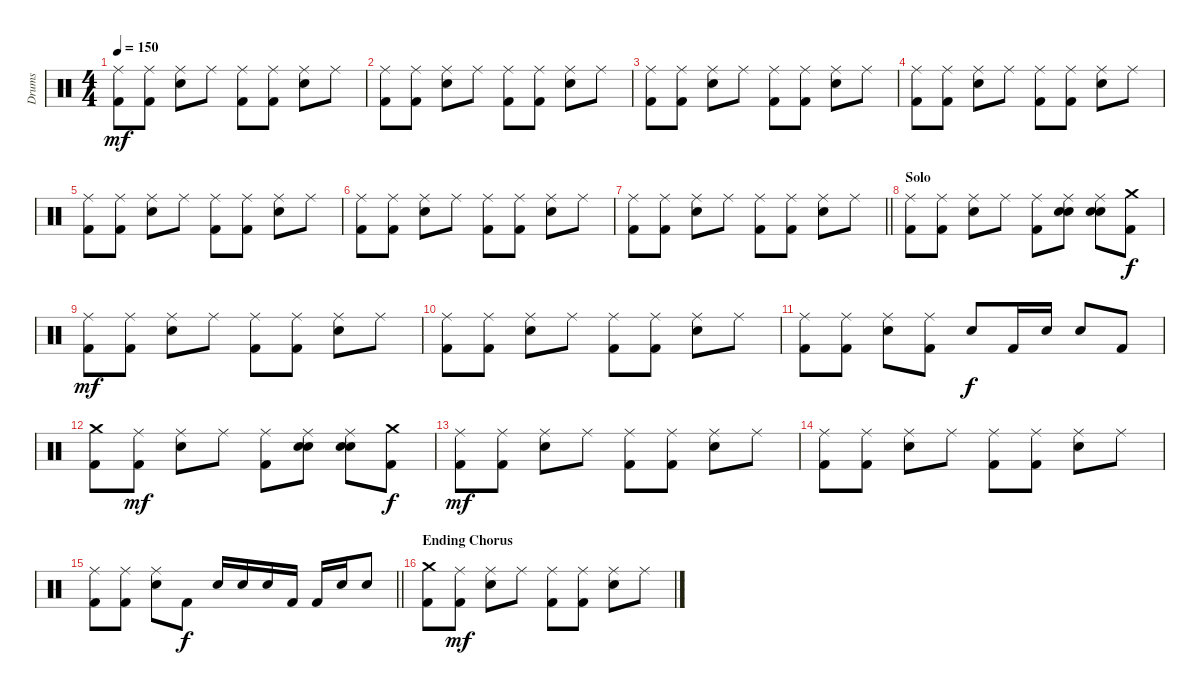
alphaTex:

\track ("Drums" "Drums") {instrument percussion}
\staff {score}
\articulation defaults
\ts (4 4)
\tempo 150
\clef neutral
\ks c
("Ride (middle)" "Kick (hit) 2").8{dy mf} ("Ride (middle)" "Kick (hit) 2").8 ("Ride (middle)" "Electric Snare (hit)").8 "Ride (middle)".8 ("Ride (middle)" "Kick (hit) 2").8 ("Ride (middle)" "Kick (hit) 2").8 ("Ride (middle)" "Electric Snare (hit)").8 "Ride (middle)".8 |
("Ride (middle)" "Kick (hit) 2").8 ("Ride (middle)" "Kick (hit) 2").8 ("Ride (middle)" "Electric Snare (hit)").8 "Ride (middle)".8 ("Ride (middle)" "Kick (hit) 2").8 ("Ride (middle)" "Kick (hit) 2").8 ("Ride (middle)" "Electric Snare (hit)").8 "Ride (middle)".8 |
("Ride (middle)" "Kick (hit) 2").8 ("Ride (middle)" "Kick (hit) 2").8 ("Ride (middle)" "Electric Snare (hit)").8 "Ride (middle)".8 ("Ride (middle)" "Kick (hit) 2").8 ("Ride (middle)" "Kick (hit) 2").8 ("Ride (middle)" "Electric Snare (hit)").8 "Ride (middle)".8 |
("Ride (middle)" "Kick (hit) 2").8 ("Ride (middle)" "Kick (hit) 2").8 ("Ride (middle)" "Electric Snare (hit)").8 "Ride (middle)".8 ("Ride (middle)" "Kick (hit) 2").8 ("Ride (middle)" "Kick (hit) 2").8 ("Ride (middle)" "Electric Snare (hit)").8 "Ride (middle)".8 |
("Ride (middle)" "Kick (hit) 2").8 ("Ride (middle)" "Kick (hit) 2").8 ("Ride (middle)" "Electric Snare (hit)").8 "Ride (middle)".8 ("Ride (middle)" "Kick (hit) 2").8 ("Ride (middle)" "Kick (hit) 2").8 ("Ride (middle)" "Electric Snare (hit)").8 "Ride (middle)".8 |
("Ride (middle)" "Kick (hit) 2").8 ("Ride (middle)" "Kick (hit) 2").8 ("Ride (middle)" "Electric Snare (hit)").8 "Ride (middle)".8 ("Ride (middle)" "Kick (hit) 2").8 ("Ride (middle)" "Kick (hit) 2").8 ("Ride (middle)" "Electric Snare (hit)").8 "Ride (middle)".8 |
\barLineRight lightlight
("Ride (middle)" "Kick (hit) 2").8 ("Ride (middle)" "Kick (hit) 2").8 ("Ride (middle)" "Electric Snare (hit)").8 "Ride (middle)".8 ("Ride (middle)" "Kick (hit) 2").8 ("Ride (middle)" "Kick (hit) 2").8 ("Ride (middle)" "Electric Snare (hit)").8 "Ride (middle)".8 |
\section ("" "Solo")
("Ride (middle)" "Kick (hit) 2").8 ("Ride (middle)" "Kick (hit) 2").8 ("Ride (middle)" "Electric Snare (hit)").8 "Ride (middle)".8 ("Ride (middle)" "Kick (hit) 2").8 ("Ride (middle)" "Snare (hit) 2" "Electric Snare (hit)").8 ("Ride (middle)" "Snare (hit) 2" "Electric Snare (hit)").8 ("Crash medium (hit)" "Kick (hit) 2").8{dy f} |
("Ride (middle)" "Kick (hit) 2").8{dy mf} ("Ride (middle)" "Kick (hit) 2").8 ("Ride (middle)" "Electric Snare (hit)").8 "Ride (middle)".8 ("Ride (middle)" "Kick (hit) 2").8 ("Ride (middle)" "Kick (hit) 2").8 ("Ride (middle)" "Electric Snare (hit)").8 "Ride (middle)".8 |
("Ride (middle)" "Kick (hit) 2").8 ("Ride (middle)" "Kick (hit) 2").8 ("Ride (middle)" "Electric Snare (hit)").8 "Ride (middle)".8 ("Ride (middle)" "Kick (hit) 2").8 ("Ride (middle)" "Kick (hit) 2").8 ("Ride (middle)" "Electric Snare (hit)").8 "Ride (middle)".8 |
("Ride (middle)" "Kick (hit) 2").8 ("Ride (middle)" "Kick (hit) 2").8 ("Ride (middle)" "Electric Snare (hit)").8 ("Ride (middle)" "Kick (hit) 2").8 "Electric Snare (hit)".8{dy f} "Kick (hit) 2".16 "Electric Snare (hit)".16 "Electric Snare (hit)".8 "Kick (hit) 2".8 |
("Crash medium (hit)" "Kick (hit) 2").8 ("Ride (middle)" "Kick (hit) 2").8{dy mf} ("Ride (middle)" "Electric Snare (hit)").8 "Ride (middle)".8 ("Ride (middle)" "Kick (hit) 2").8 ("Ride (middle)" "Snare (hit) 2" "Electric Snare (hit)").8 ("Ride (middle)" "Snare (hit) 2" "Electric Snare (hit)").8 ("Crash medium (hit)" "Kick (hit) 2").8{dy f} |
("Ride (middle)" "Kick (hit) 2").8{dy mf} ("Ride (middle)" "Kick (hit) 2").8 ("Ride (middle)" "Electric Snare (hit)").8 "Ride (middle)".8 ("Ride (middle)" "Kick (hit) 2").8 ("Ride (middle)" "Kick (hit) 2").8 ("Ride (middle)" "Electric Snare (hit)").8 "Ride (middle)".8 |
("Ride (middle)" "Kick (hit) 2").8 ("Ride (middle)" "Kick (hit) 2").8 ("Ride (middle)" "Electric Snare (hit)").8 "Ride (middle)".8 ("Ride (middle)" "Kick (hit) 2").8 ("Ride (middle)" "Kick (hit) 2").8 ("Ride (middle)" "Electric Snare (hit)").8 "Ride (middle)".8 |
\barLineRight lightlight
("Ride (middle)" "Kick (hit) 2").8 ("Ride (middle)" "Kick (hit) 2").8 ("Ride (middle)" "Electric Snare (hit)").8 "Kick (hit) 2".8{dy f} "Electric Snare (hit)".16 "Electric Snare (hit)".16 "Electric Snare (hit)".16 "Kick (hit) 2".16 "Kick (hit) 2".16 "Electric Snare (hit)".16 "Electric Snare (hit)".8 |
\section ("" "Ending Chorus")
("Crash medium (hit)" "Kick (hit) 2").8 ("Ride (middle)" "Kick (hit) 2").8{dy mf} ("Ride (middle)" "Electric Snare (hit)").8 "Ride (middle)".8 ("Ride (middle)" "Kick (hit) 2").8 ("Ride (middle)" "Kick (hit) 2").8 ("Ride (middle)" "Electric Snare (hit)").8 "Ride (middle)".8
